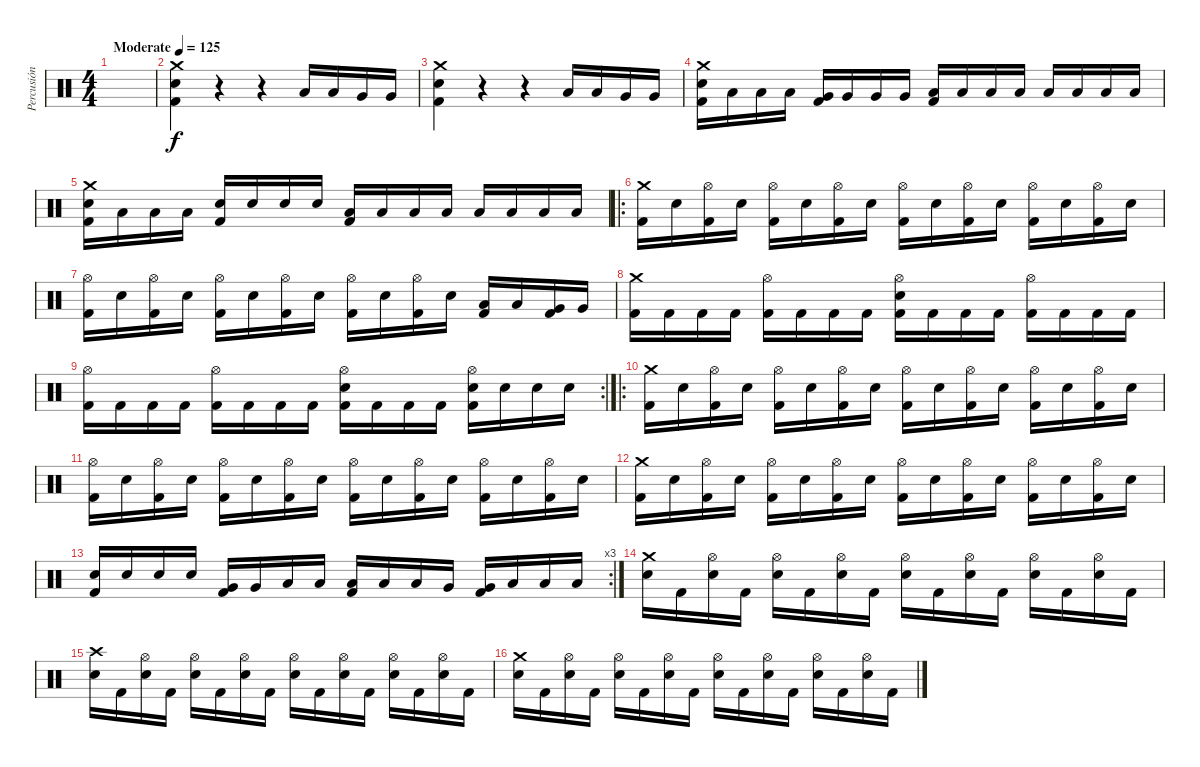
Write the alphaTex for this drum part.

\track ("Percusión" "Percusión") {instrument percussion}
\staff {score}
\articulation defaults
\ts (4 4)
\tempo (125 "Moderate")
\clef neutral
\ks c
|
("Crash medium (hit)" "Electric Snare (hit)" "Kick (hit) 2").4 r.4 r.4 "Low Tom (hit)".16 "Low Tom (hit)".16 "Very Low Tom (hit)".16 "Very Low Tom (hit)".16 |
("Crash medium (hit)" "Electric Snare (hit)" "Kick (hit) 2").4 r.4 r.4 "Low Tom (hit)".16 "Low Tom (hit)".16 "Very Low Tom (hit)".16 "Very Low Tom (hit)".16 |
("Crash medium (hit)" "Electric Snare (hit)" "Kick (hit) 2").16 "Low Tom (hit)".16 "Low Tom (hit)".16 "Low Tom (hit)".16 ("Very Low Tom (hit)" "Kick (hit) 2").16 "Very Low Tom (hit)".16 "Very Low Tom (hit)".16 "Very Low Tom (hit)".16 ("Low Tom (hit)" "Kick (hit) 2").16 "Low Tom (hit)".16 "Low Tom (hit)".16 "Low Tom (hit)".16 "Low Floor Tom (hit)".16 "Low Floor Tom (hit)".16 "Low Floor Tom (hit)".16 "Low Floor Tom (hit)".16 |
("Crash medium (hit)" "Electric Snare (hit)" "Kick (hit) 2").16 "Low Tom (hit)".16 "Low Tom (hit)".16 "Low Tom (hit)".16 ("Electric Snare (hit)" "Kick (hit) 2").16 "Electric Snare (hit)".16 "Electric Snare (hit)".16 "Electric Snare (hit)".16 ("Low Tom (hit)" "Kick (hit) 2").16 "Low Tom (hit)".16 "Low Tom (hit)".16 "Low Tom (hit)".16 "Low Floor Tom (hit)".16 "Low Floor Tom (hit)".16 "Low Floor Tom (hit)".16 "Low Floor Tom (hit)".16 |
\ro
("Crash medium (hit)" "Kick (hit) 2").16 "Electric Snare (hit)".16 ("Hi-Hat (open)" "Kick (hit) 2").16 "Electric Snare (hit)".16 ("Hi-Hat (open)" "Kick (hit) 2").16 "Electric Snare (hit)".16 ("Hi-Hat (open)" "Kick (hit) 2").16 "Electric Snare (hit)".16 ("Hi-Hat (open)" "Kick (hit) 2").16 "Electric Snare (hit)".16 ("Hi-Hat (open)" "Kick (hit) 2").16 "Electric Snare (hit)".16 ("Hi-Hat (open)" "Kick (hit) 2").16 "Electric Snare (hit)".16 ("Hi-Hat (open)" "Kick (hit) 2").16 "Electric Snare (hit)".16 |
("Hi-Hat (open)" "Kick (hit) 2").16 "Electric Snare (hit)".16 ("Hi-Hat (open)" "Kick (hit) 2").16 "Electric Snare (hit)".16 ("Hi-Hat (open)" "Kick (hit) 2").16 "Electric Snare (hit)".16 ("Hi-Hat (open)" "Kick (hit) 2").16 "Electric Snare (hit)".16 ("Hi-Hat (open)" "Kick (hit) 2").16 "Electric Snare (hit)".16 ("Hi-Hat (open)" "Kick (hit) 2").16 "Electric Snare (hit)".16 ("Low Tom (hit)" "Kick (hit) 2").16 "Low Tom (hit)".16 ("Very Low Tom (hit)" "Kick (hit) 2").16 "Very Low Tom (hit)".16 |
("Crash medium (hit)" "Kick (hit) 2").16 "Kick (hit) 2".16 "Kick (hit) 2".16 "Kick (hit) 2".16 ("Hi-Hat (open)" "Kick (hit) 2").16 "Kick (hit) 2".16 "Kick (hit) 2".16 "Kick (hit) 2".16 ("Hi-Hat (open)" "Electric Snare (hit)" "Kick (hit) 2").16 "Kick (hit) 2".16 "Kick (hit) 2".16 "Kick (hit) 2".16 ("Hi-Hat (open)" "Kick (hit) 2").16 "Kick (hit) 2".16 "Kick (hit) 2".16 "Kick (hit) 2".16 |
\rc 2
("Hi-Hat (open)" "Kick (hit) 2").16 "Kick (hit) 2".16 "Kick (hit) 2".16 "Kick (hit) 2".16 ("Hi-Hat (open)" "Kick (hit) 2").16 "Kick (hit) 2".16 "Kick (hit) 2".16 "Kick (hit) 2".16 ("Hi-Hat (open)" "Electric Snare (hit)" "Kick (hit) 2").16 "Kick (hit) 2".16 "Kick (hit) 2".16 "Kick (hit) 2".16 ("Hi-Hat (open)" "Electric Snare (hit)" "Kick (hit) 2").16 "Electric Snare (hit)".16 "Electric Snare (hit)".16 "Electric Snare (hit)".16 |
\ro
("Crash medium (hit)" "Kick (hit) 2").16 "Electric Snare (hit)".16 ("Hi-Hat (open)" "Kick (hit) 2").16 "Electric Snare (hit)".16 ("Hi-Hat (open)" "Kick (hit) 2").16 "Electric Snare (hit)".16 ("Hi-Hat (open)" "Kick (hit) 2").16 "Electric Snare (hit)".16 ("Hi-Hat (open)" "Kick (hit) 2").16 "Electric Snare (hit)".16 ("Hi-Hat (open)" "Kick (hit) 2").16 "Electric Snare (hit)".16 ("Hi-Hat (open)" "Kick (hit) 2").16 "Electric Snare (hit)".16 ("Hi-Hat (open)" "Kick (hit) 2").16 "Electric Snare (hit)".16 |
("Hi-Hat (open)" "Kick (hit) 2").16 "Electric Snare (hit)".16 ("Hi-Hat (open)" "Kick (hit) 2").16 "Electric Snare (hit)".16 ("Hi-Hat (open)" "Kick (hit) 2").16 "Electric Snare (hit)".16 ("Hi-Hat (open)" "Kick (hit) 2").16 "Electric Snare (hit)".16 ("Hi-Hat (open)" "Kick (hit) 2").16 "Electric Snare (hit)".16 ("Hi-Hat (open)" "Kick (hit) 2").16 "Electric Snare (hit)".16 ("Hi-Hat (open)" "Kick (hit) 2").16 "Electric Snare (hit)".16 ("Hi-Hat (open)" "Kick (hit) 2").16 "Electric Snare (hit)".16 |
("Crash medium (hit)" "Kick (hit) 2").16 "Electric Snare (hit)".16 ("Hi-Hat (open)" "Kick (hit) 2").16 "Electric Snare (hit)".16 ("Hi-Hat (open)" "Kick (hit) 2").16 "Electric Snare (hit)".16 ("Hi-Hat (open)" "Kick (hit) 2").16 "Electric Snare (hit)".16 ("Hi-Hat (open)" "Kick (hit) 2").16 "Electric Snare (hit)".16 ("Hi-Hat (open)" "Kick (hit) 2").16 "Electric Snare (hit)".16 ("Hi-Hat (open)" "Kick (hit) 2").16 "Electric Snare (hit)".16 ("Hi-Hat (open)" "Kick (hit) 2").16 "Electric Snare (hit)".16 |
\rc 3
("Electric Snare (hit)" "Kick (hit) 2").16 "Electric Snare (hit)".16 "Electric Snare (hit)".16 "Electric Snare (hit)".16 ("Very Low Tom (hit)" "Kick (hit) 2").16 "Very Low Tom (hit)".16 "Low Floor Tom (hit)".16 "Low Floor Tom (hit)".16 ("Low Tom (hit)" "Kick (hit) 2").16 "Low Tom (hit)".16 "Low Tom (hit)".16 "Very Low Tom (hit)".16 ("Very Low Tom (hit)" "Kick (hit) 2").16 "Low Floor Tom (hit)".16 "Low Floor Tom (hit)".16 "Low Floor Tom (hit)".16 |
("Crash medium (hit)" "Electric Snare (hit)").16 "Kick (hit) 2".16 ("Hi-Hat (open)" "Electric Snare (hit)").16 "Kick (hit) 2".16 ("Hi-Hat (open)" "Electric Snare (hit)").16 "Kick (hit) 2".16 ("Hi-Hat (open)" "Electric Snare (hit)").16 "Kick (hit) 2".16 ("Hi-Hat (open)" "Electric Snare (hit)").16 "Kick (hit) 2".16 ("Hi-Hat (open)" "Electric Snare (hit)").16 "Kick (hit) 2".16 ("Hi-Hat (open)" "Electric Snare (hit)").16 "Kick (hit) 2".16 ("Hi-Hat (open)" "Electric Snare (hit)").16 "Kick (hit) 2".16 |
("Crash high (hit)" "Electric Snare (hit)").16 "Kick (hit) 2".16 ("Hi-Hat (open)" "Electric Snare (hit)").16 "Kick (hit) 2".16 ("Hi-Hat (open)" "Electric Snare (hit)").16 "Kick (hit) 2".16 ("Hi-Hat (open)" "Electric Snare (hit)").16 "Kick (hit) 2".16 ("Hi-Hat (open)" "Electric Snare (hit)").16 "Kick (hit) 2".16 ("Hi-Hat (open)" "Electric Snare (hit)").16 "Kick (hit) 2".16 ("Hi-Hat (open)" "Electric Snare (hit)").16 "Kick (hit) 2".16 ("Hi-Hat (open)" "Electric Snare (hit)").16 "Kick (hit) 2".16 |
("Crash medium (hit)" "Electric Snare (hit)").16 "Kick (hit) 2".16 ("Hi-Hat (open)" "Electric Snare (hit)").16 "Kick (hit) 2".16 ("Hi-Hat (open)" "Electric Snare (hit)").16 "Kick (hit) 2".16 ("Hi-Hat (open)" "Electric Snare (hit)").16 "Kick (hit) 2".16 ("Hi-Hat (open)" "Electric Snare (hit)").16 "Kick (hit) 2".16 ("Hi-Hat (open)" "Electric Snare (hit)").16 "Kick (hit) 2".16 ("Hi-Hat (open)" "Electric Snare (hit)").16 "Kick (hit) 2".16 ("Hi-Hat (open)" "Electric Snare (hit)").16 "Kick (hit) 2".16
